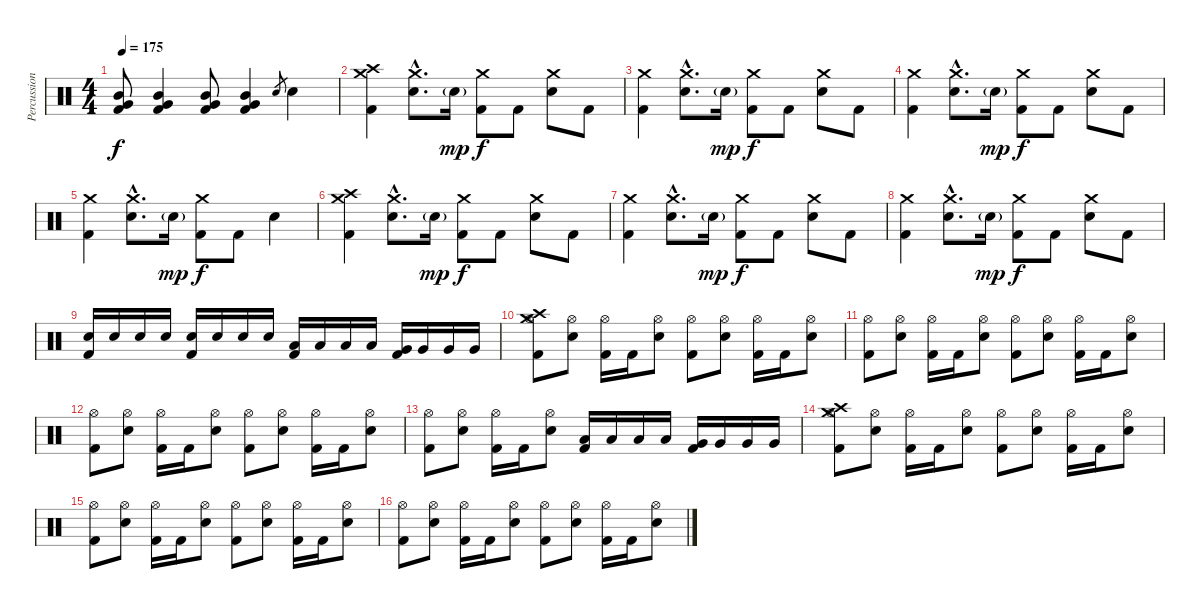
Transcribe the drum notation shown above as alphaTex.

\track ("Percussions" "Percussion") {instrument percussion}
\staff {score}
\articulation defaults
\ts (4 4)
\tempo 175
\clef neutral
\ks c
("Very Low Tom (hit)" "Mid Tom (hit)" "Kick (hit) 2").8{dy f} ("Very Low Tom (hit)" "Mid Tom (hit)" "Kick (hit) 2").4 ("Very Low Tom (hit)" "Mid Tom (hit)" "Kick (hit) 2").8 ("Very Low Tom (hit)" "Mid Tom (hit)" "Kick (hit) 2").4 "Electric Snare (hit)".8{gr} "Electric Snare (hit)".4 |
("Crash medium (hit)" "Crash high (hit)" "Kick (hit) 2").4 ("Crash medium (hit)"{hac} "Electric Snare (hit)"{hac}).8{d} "Electric Snare (hit)"{g}.16{dy mp} ("Crash medium (hit)" "Kick (hit) 2").8{dy f} "Kick (hit) 2".8 ("Crash medium (hit)" "Electric Snare (hit)").8 "Kick (hit) 2".8 |
("Crash medium (hit)" "Kick (hit) 2").4 ("Crash medium (hit)"{hac} "Electric Snare (hit)"{hac}).8{d} "Electric Snare (hit)"{g}.16{dy mp} ("Crash medium (hit)" "Kick (hit) 2").8{dy f} "Kick (hit) 2".8 ("Crash medium (hit)" "Electric Snare (hit)").8 "Kick (hit) 2".8 |
("Crash medium (hit)" "Kick (hit) 2").4 ("Crash medium (hit)"{hac} "Electric Snare (hit)"{hac}).8{d} "Electric Snare (hit)"{g}.16{dy mp} ("Crash medium (hit)" "Kick (hit) 2").8{dy f} "Kick (hit) 2".8 ("Crash medium (hit)" "Electric Snare (hit)").8 "Kick (hit) 2".8 |
("Crash medium (hit)" "Kick (hit) 2").4 ("Crash medium (hit)"{hac} "Electric Snare (hit)"{hac}).8{d} "Electric Snare (hit)"{g}.16{dy mp} ("Crash medium (hit)" "Kick (hit) 2").8{dy f} "Kick (hit) 2".8 "Electric Snare (hit)".4 |
("Crash medium (hit)" "Crash high (hit)" "Kick (hit) 2").4 ("Crash medium (hit)"{hac} "Electric Snare (hit)"{hac}).8{d} "Electric Snare (hit)"{g}.16{dy mp} ("Crash medium (hit)" "Kick (hit) 2").8{dy f} "Kick (hit) 2".8 ("Crash medium (hit)" "Electric Snare (hit)").8 "Kick (hit) 2".8 |
("Crash medium (hit)" "Kick (hit) 2").4 ("Crash medium (hit)"{hac} "Electric Snare (hit)"{hac}).8{d} "Electric Snare (hit)"{g}.16{dy mp} ("Crash medium (hit)" "Kick (hit) 2").8{dy f} "Kick (hit) 2".8 ("Crash medium (hit)" "Electric Snare (hit)").8 "Kick (hit) 2".8 |
("Crash medium (hit)" "Kick (hit) 2").4 ("Crash medium (hit)"{hac} "Electric Snare (hit)"{hac}).8{d} "Electric Snare (hit)"{g}.16{dy mp} ("Crash medium (hit)" "Kick (hit) 2").8{dy f} "Kick (hit) 2".8 ("Crash medium (hit)" "Electric Snare (hit)").8 "Kick (hit) 2".8 |
("Electric Snare (hit)" "Kick (hit) 2").16 "Electric Snare (hit)".16 "Electric Snare (hit)".16 "Electric Snare (hit)".16 ("Electric Snare (hit)" "Kick (hit) 2").16 "Electric Snare (hit)".16 "Electric Snare (hit)".16 "Electric Snare (hit)".16 ("Low Tom (hit)" "Kick (hit) 2").16 "Low Tom (hit)".16 "Low Tom (hit)".16 "Low Tom (hit)".16 ("Very Low Tom (hit)" "Kick (hit) 2").16 "Very Low Tom (hit)".16 "Very Low Tom (hit)".16 "Very Low Tom (hit)".16 |
("Hi-Hat (open)" "Crash high (hit)" "Crash medium (hit)" "Kick (hit) 2").8 ("Hi-Hat (open)" "Electric Snare (hit)").8 ("Hi-Hat (open)" "Kick (hit) 2").16 "Kick (hit) 2".16 ("Hi-Hat (open)" "Electric Snare (hit)").8 ("Hi-Hat (open)" "Kick (hit) 2").8 ("Hi-Hat (open)" "Electric Snare (hit)").8 ("Hi-Hat (open)" "Kick (hit) 2").16 "Kick (hit) 2".16 ("Hi-Hat (open)" "Electric Snare (hit)").8 |
("Hi-Hat (open)" "Kick (hit) 2").8 ("Hi-Hat (open)" "Electric Snare (hit)").8 ("Hi-Hat (open)" "Kick (hit) 2").16 "Kick (hit) 2".16 ("Hi-Hat (open)" "Electric Snare (hit)").8 ("Hi-Hat (open)" "Kick (hit) 2").8 ("Hi-Hat (open)" "Electric Snare (hit)").8 ("Hi-Hat (open)" "Kick (hit) 2").16 "Kick (hit) 2".16 ("Hi-Hat (open)" "Electric Snare (hit)").8 |
("Hi-Hat (open)" "Kick (hit) 2").8 ("Hi-Hat (open)" "Electric Snare (hit)").8 ("Hi-Hat (open)" "Kick (hit) 2").16 "Kick (hit) 2".16 ("Hi-Hat (open)" "Electric Snare (hit)").8 ("Hi-Hat (open)" "Kick (hit) 2").8 ("Hi-Hat (open)" "Electric Snare (hit)").8 ("Hi-Hat (open)" "Kick (hit) 2").16 "Kick (hit) 2".16 ("Hi-Hat (open)" "Electric Snare (hit)").8 |
("Hi-Hat (open)" "Kick (hit) 2").8 ("Hi-Hat (open)" "Electric Snare (hit)").8 ("Hi-Hat (open)" "Kick (hit) 2").16 "Kick (hit) 2".16 ("Hi-Hat (open)" "Electric Snare (hit)").8 ("Low Tom (hit)" "Kick (hit) 2").16 "Low Tom (hit)".16 "Low Tom (hit)".16 "Low Tom (hit)".16 ("Very Low Tom (hit)" "Kick (hit) 2").16 "Very Low Tom (hit)".16 "Very Low Tom (hit)".16 "Very Low Tom (hit)".16 |
("Hi-Hat (open)" "Crash high (hit)" "Crash medium (hit)" "Kick (hit) 2").8 ("Hi-Hat (open)" "Electric Snare (hit)").8 ("Hi-Hat (open)" "Kick (hit) 2").16 "Kick (hit) 2".16 ("Hi-Hat (open)" "Electric Snare (hit)").8 ("Hi-Hat (open)" "Kick (hit) 2").8 ("Hi-Hat (open)" "Electric Snare (hit)").8 ("Hi-Hat (open)" "Kick (hit) 2").16 "Kick (hit) 2".16 ("Hi-Hat (open)" "Electric Snare (hit)").8 |
("Hi-Hat (open)" "Kick (hit) 2").8 ("Hi-Hat (open)" "Electric Snare (hit)").8 ("Hi-Hat (open)" "Kick (hit) 2").16 "Kick (hit) 2".16 ("Hi-Hat (open)" "Electric Snare (hit)").8 ("Hi-Hat (open)" "Kick (hit) 2").8 ("Hi-Hat (open)" "Electric Snare (hit)").8 ("Hi-Hat (open)" "Kick (hit) 2").16 "Kick (hit) 2".16 ("Hi-Hat (open)" "Electric Snare (hit)").8 |
("Hi-Hat (open)" "Kick (hit) 2").8 ("Hi-Hat (open)" "Electric Snare (hit)").8 ("Hi-Hat (open)" "Kick (hit) 2").16 "Kick (hit) 2".16 ("Hi-Hat (open)" "Electric Snare (hit)").8 ("Hi-Hat (open)" "Kick (hit) 2").8 ("Hi-Hat (open)" "Electric Snare (hit)").8 ("Hi-Hat (open)" "Kick (hit) 2").16 "Kick (hit) 2".16 ("Hi-Hat (open)" "Electric Snare (hit)").8
